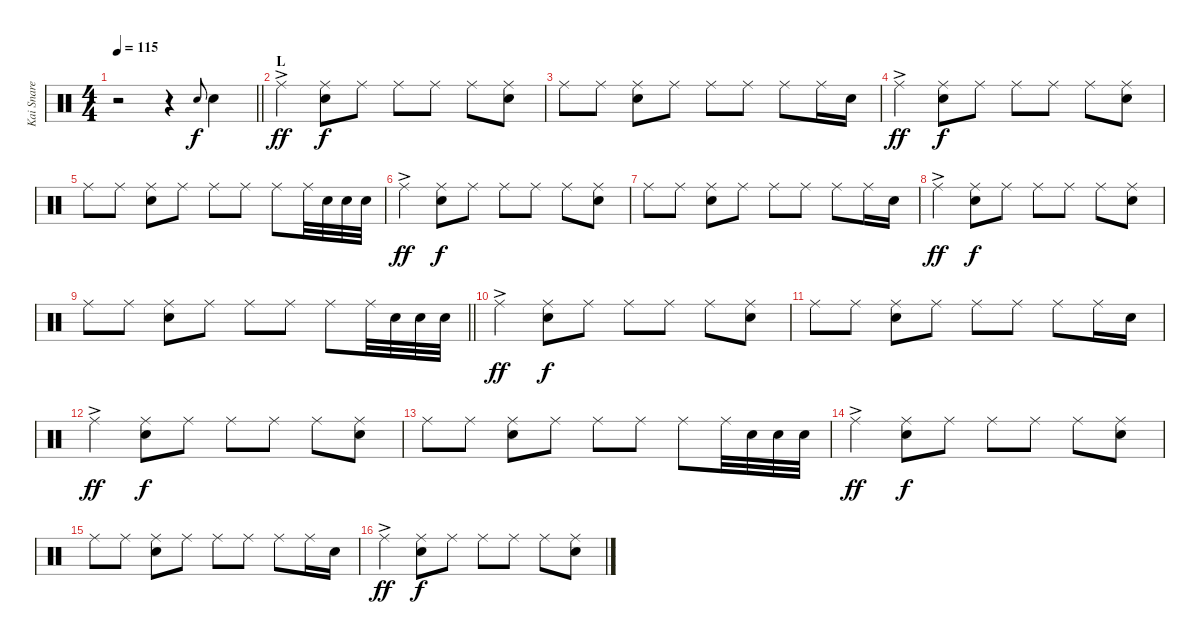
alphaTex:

\track ("Kai Snare" "Kai Snare") {instrument percussion}
\staff {score}
\articulation defaults
\ts (4 4)
\tempo 115
\clef neutral
\barLineRight lightlight
\ks c
r.2{dy ff} r.4 "Snare (hit) 2".8{gr onbeat dy f} "Snare (hit) 2".4 |
\section ("" "L")
"Ride (middle)"{ac}.4{dy ff} ("Ride (middle)" "Snare (hit) 2").8{dy f} "Ride (middle)".8 "Ride (middle)".8 "Ride (middle)".8 "Ride (middle)".8 ("Ride (middle)" "Snare (hit) 2").8 |
"Ride (middle)".8 "Ride (middle)".8 ("Ride (middle)" "Snare (hit) 2").8 "Ride (middle)".8 "Ride (middle)".8 "Ride (middle)".8 "Ride (middle)".8 "Ride (middle)".16 "Snare (hit) 2".16 |
"Ride (middle)"{ac}.4{dy ff} ("Ride (middle)" "Snare (hit) 2").8{dy f} "Ride (middle)".8 "Ride (middle)".8 "Ride (middle)".8 "Ride (middle)".8 ("Ride (middle)" "Snare (hit) 2").8 |
"Ride (middle)".8 "Ride (middle)".8 ("Ride (middle)" "Snare (hit) 2").8 "Ride (middle)".8 "Ride (middle)".8 "Ride (middle)".8 "Ride (middle)".8 "Ride (middle)".32 "Snare (hit) 2".32 "Snare (hit) 2".32 "Snare (hit) 2".32 |
"Ride (middle)"{ac}.4{dy ff} ("Ride (middle)" "Snare (hit) 2").8{dy f} "Ride (middle)".8 "Ride (middle)".8 "Ride (middle)".8 "Ride (middle)".8 ("Ride (middle)" "Snare (hit) 2").8 |
"Ride (middle)".8 "Ride (middle)".8 ("Ride (middle)" "Snare (hit) 2").8 "Ride (middle)".8 "Ride (middle)".8 "Ride (middle)".8 "Ride (middle)".8 "Ride (middle)".16 "Snare (hit) 2".16 |
"Ride (middle)"{ac}.4{dy ff} ("Ride (middle)" "Snare (hit) 2").8{dy f} "Ride (middle)".8 "Ride (middle)".8 "Ride (middle)".8 "Ride (middle)".8 ("Ride (middle)" "Snare (hit) 2").8 |
\barLineRight lightlight "Ride (middle)".8 "Ride (middle)".8
("Ride (middle)" "Snare (hit) 2").8 "Ride (middle)".8 "Ride (middle)".8 "Ride (middle)".8 "Ride (middle)".8 "Ride (middle)".32 "Snare (hit) 2".32 "Snare (hit) 2".32 "Snare (hit) 2".32 |
"Ride (middle)"{ac}.4{dy ff} ("Ride (middle)" "Snare (hit) 2").8{dy f} "Ride (middle)".8 "Ride (middle)".8 "Ride (middle)".8 "Ride (middle)".8 ("Ride (middle)" "Snare (hit) 2").8 |
"Ride (middle)".8 "Ride (middle)".8 ("Ride (middle)" "Snare (hit) 2").8 "Ride (middle)".8 "Ride (middle)".8 "Ride (middle)".8 "Ride (middle)".8 "Ride (middle)".16 "Snare (hit) 2".16 |
"Ride (middle)"{ac}.4{dy ff} ("Ride (middle)" "Snare (hit) 2").8{dy f} "Ride (middle)".8 "Ride (middle)".8 "Ride (middle)".8 "Ride (middle)".8 ("Ride (middle)" "Snare (hit) 2").8 |
"Ride (middle)".8 "Ride (middle)".8 ("Ride (middle)" "Snare (hit) 2").8 "Ride (middle)".8 "Ride (middle)".8 "Ride (middle)".8 "Ride (middle)".8 "Ride (middle)".32 "Snare (hit) 2".32 "Snare (hit) 2".32 "Snare (hit) 2".32 |
"Ride (middle)"{ac}.4{dy ff} ("Ride (middle)" "Snare (hit) 2").8{dy f} "Ride (middle)".8 "Ride (middle)".8 "Ride (middle)".8 "Ride (middle)".8 ("Ride (middle)" "Snare (hit) 2").8 |
"Ride (middle)".8 "Ride (middle)".8 ("Ride (middle)" "Snare (hit) 2").8 "Ride (middle)".8 "Ride (middle)".8 "Ride (middle)".8 "Ride (middle)".8 "Ride (middle)".16 "Snare (hit) 2".16 |
"Ride (middle)"{ac}.4{dy ff} ("Ride (middle)" "Snare (hit) 2").8{dy f} "Ride (middle)".8 "Ride (middle)".8 "Ride (middle)".8 "Ride (middle)".8 ("Ride (middle)" "Snare (hit) 2").8
